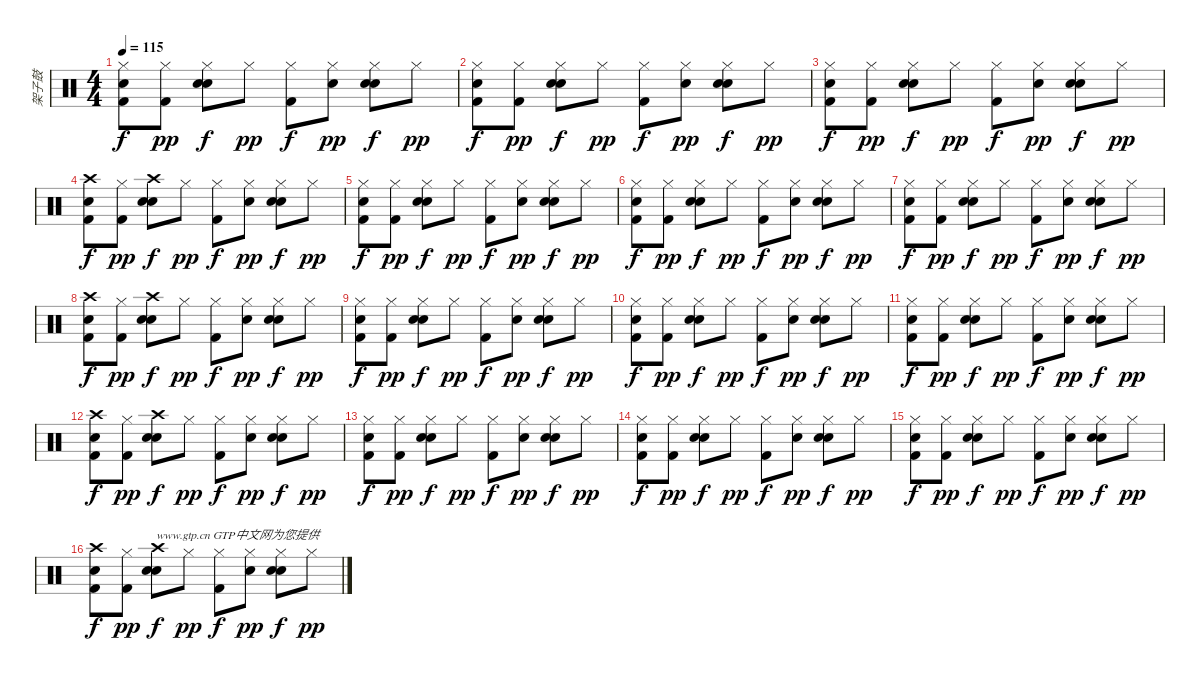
\track ("架子鼓" "架子鼓") {instrument percussion}
\staff {score}
\articulation defaults
\ts (4 4)
\tempo 115
\clef neutral
\ks c
("Hi-Hat (closed)" "Electric Snare (hit)" "Kick (hit) 2").8{dy f} ("Hi-Hat (closed)" "Kick (hit) 2").8{dy pp} ("Hi-Hat (closed)" "Snare (hit) 2" "Electric Snare (hit)").8{dy f} "Hi-Hat (closed)".8{dy pp} ("Hi-Hat (closed)" "Kick (hit) 2").8{dy f} ("Hi-Hat (closed)" "Snare (hit) 2").8{dy pp} ("Hi-Hat (closed)" "Snare (hit) 2" "Electric Snare (hit)").8{dy f} "Hi-Hat (closed)".8{dy pp} |
("Hi-Hat (closed)" "Electric Snare (hit)" "Kick (hit) 2").8{dy f} ("Hi-Hat (closed)" "Kick (hit) 2").8{dy pp} ("Hi-Hat (closed)" "Snare (hit) 2" "Electric Snare (hit)").8{dy f} "Hi-Hat (closed)".8{dy pp} ("Hi-Hat (closed)" "Kick (hit) 2").8{dy f} ("Hi-Hat (closed)" "Snare (hit) 2").8{dy pp} ("Hi-Hat (closed)" "Snare (hit) 2" "Electric Snare (hit)").8{dy f} "Hi-Hat (closed)".8{dy pp} |
("Hi-Hat (closed)" "Electric Snare (hit)" "Kick (hit) 2").8{dy f} ("Hi-Hat (closed)" "Kick (hit) 2").8{dy pp} ("Hi-Hat (closed)" "Snare (hit) 2" "Electric Snare (hit)").8{dy f} "Hi-Hat (closed)".8{dy pp} ("Hi-Hat (closed)" "Kick (hit) 2").8{dy f} ("Hi-Hat (closed)" "Snare (hit) 2").8{dy pp} ("Hi-Hat (closed)" "Snare (hit) 2" "Electric Snare (hit)").8{dy f} "Hi-Hat (closed)".8{dy pp} |
("Crash high (hit)" "Electric Snare (hit)" "Kick (hit) 2").8{dy f} ("Hi-Hat (closed)" "Kick (hit) 2").8{dy pp} ("Crash high (hit)" "Snare (hit) 2" "Electric Snare (hit)").8{dy f} "Hi-Hat (closed)".8{dy pp} ("Hi-Hat (closed)" "Kick (hit) 2").8{dy f} ("Hi-Hat (closed)" "Snare (hit) 2").8{dy pp} ("Hi-Hat (closed)" "Snare (hit) 2" "Electric Snare (hit)").8{dy f} "Hi-Hat (closed)".8{dy pp} |
("Hi-Hat (closed)" "Electric Snare (hit)" "Kick (hit) 2").8{dy f} ("Hi-Hat (closed)" "Kick (hit) 2").8{dy pp} ("Hi-Hat (closed)" "Snare (hit) 2" "Electric Snare (hit)").8{dy f} "Hi-Hat (closed)".8{dy pp} ("Hi-Hat (closed)" "Kick (hit) 2").8{dy f} ("Hi-Hat (closed)" "Snare (hit) 2").8{dy pp} ("Hi-Hat (closed)" "Snare (hit) 2" "Electric Snare (hit)").8{dy f} "Hi-Hat (closed)".8{dy pp} |
("Hi-Hat (closed)" "Electric Snare (hit)" "Kick (hit) 2").8{dy f} ("Hi-Hat (closed)" "Kick (hit) 2").8{dy pp} ("Hi-Hat (closed)" "Snare (hit) 2" "Electric Snare (hit)").8{dy f} "Hi-Hat (closed)".8{dy pp} ("Hi-Hat (closed)" "Kick (hit) 2").8{dy f} ("Hi-Hat (closed)" "Snare (hit) 2").8{dy pp} ("Hi-Hat (closed)" "Snare (hit) 2" "Electric Snare (hit)").8{dy f} "Hi-Hat (closed)".8{dy pp} |
("Hi-Hat (closed)" "Electric Snare (hit)" "Kick (hit) 2").8{dy f} ("Hi-Hat (closed)" "Kick (hit) 2").8{dy pp} ("Hi-Hat (closed)" "Snare (hit) 2" "Electric Snare (hit)").8{dy f} "Hi-Hat (closed)".8{dy pp} ("Hi-Hat (closed)" "Kick (hit) 2").8{dy f} ("Hi-Hat (closed)" "Snare (hit) 2").8{dy pp} ("Hi-Hat (closed)" "Snare (hit) 2" "Electric Snare (hit)").8{dy f} "Hi-Hat (closed)".8{dy pp} |
("Crash high (hit)" "Electric Snare (hit)" "Kick (hit) 2").8{dy f} ("Hi-Hat (closed)" "Kick (hit) 2").8{dy pp} ("Crash high (hit)" "Snare (hit) 2" "Electric Snare (hit)").8{dy f} "Hi-Hat (closed)".8{dy pp} ("Hi-Hat (closed)" "Kick (hit) 2").8{dy f} ("Hi-Hat (closed)" "Snare (hit) 2").8{dy pp} ("Hi-Hat (closed)" "Snare (hit) 2" "Electric Snare (hit)").8{dy f} "Hi-Hat (closed)".8{dy pp} |
("Hi-Hat (closed)" "Electric Snare (hit)" "Kick (hit) 2").8{dy f} ("Hi-Hat (closed)" "Kick (hit) 2").8{dy pp} ("Hi-Hat (closed)" "Snare (hit) 2" "Electric Snare (hit)").8{dy f} "Hi-Hat (closed)".8{dy pp} ("Hi-Hat (closed)" "Kick (hit) 2").8{dy f} ("Hi-Hat (closed)" "Snare (hit) 2").8{dy pp} ("Hi-Hat (closed)" "Snare (hit) 2" "Electric Snare (hit)").8{dy f} "Hi-Hat (closed)".8{dy pp} |
("Hi-Hat (closed)" "Electric Snare (hit)" "Kick (hit) 2").8{dy f} ("Hi-Hat (closed)" "Kick (hit) 2").8{dy pp} ("Hi-Hat (closed)" "Snare (hit) 2" "Electric Snare (hit)").8{dy f} "Hi-Hat (closed)".8{dy pp} ("Hi-Hat (closed)" "Kick (hit) 2").8{dy f} ("Hi-Hat (closed)" "Snare (hit) 2").8{dy pp} ("Hi-Hat (closed)" "Snare (hit) 2" "Electric Snare (hit)").8{dy f} "Hi-Hat (closed)".8{dy pp} |
("Hi-Hat (closed)" "Electric Snare (hit)" "Kick (hit) 2").8{dy f} ("Hi-Hat (closed)" "Kick (hit) 2").8{dy pp} ("Hi-Hat (closed)" "Snare (hit) 2" "Electric Snare (hit)").8{dy f} "Hi-Hat (closed)".8{dy pp} ("Hi-Hat (closed)" "Kick (hit) 2").8{dy f} ("Hi-Hat (closed)" "Snare (hit) 2").8{dy pp} ("Hi-Hat (closed)" "Snare (hit) 2" "Electric Snare (hit)").8{dy f} "Hi-Hat (closed)".8{dy pp} |
("Crash high (hit)" "Electric Snare (hit)" "Kick (hit) 2").8{dy f} ("Hi-Hat (closed)" "Kick (hit) 2").8{dy pp} ("Crash high (hit)" "Snare (hit) 2" "Electric Snare (hit)").8{dy f} "Hi-Hat (closed)".8{dy pp} ("Hi-Hat (closed)" "Kick (hit) 2").8{dy f} ("Hi-Hat (closed)" "Snare (hit) 2").8{dy pp} ("Hi-Hat (closed)" "Snare (hit) 2" "Electric Snare (hit)").8{dy f} "Hi-Hat (closed)".8{dy pp} |
("Hi-Hat (closed)" "Electric Snare (hit)" "Kick (hit) 2").8{dy f} ("Hi-Hat (closed)" "Kick (hit) 2").8{dy pp} ("Hi-Hat (closed)" "Snare (hit) 2" "Electric Snare (hit)").8{dy f} "Hi-Hat (closed)".8{dy pp} ("Hi-Hat (closed)" "Kick (hit) 2").8{dy f} ("Hi-Hat (closed)" "Snare (hit) 2").8{dy pp} ("Hi-Hat (closed)" "Snare (hit) 2" "Electric Snare (hit)").8{dy f} "Hi-Hat (closed)".8{dy pp} |
("Hi-Hat (closed)" "Electric Snare (hit)" "Kick (hit) 2").8{dy f} ("Hi-Hat (closed)" "Kick (hit) 2").8{dy pp} ("Hi-Hat (closed)" "Snare (hit) 2" "Electric Snare (hit)").8{dy f} "Hi-Hat (closed)".8{dy pp} ("Hi-Hat (closed)" "Kick (hit) 2").8{dy f} ("Hi-Hat (closed)" "Snare (hit) 2").8{dy pp} ("Hi-Hat (closed)" "Snare (hit) 2" "Electric Snare (hit)").8{dy f} "Hi-Hat (closed)".8{dy pp} |
("Hi-Hat (closed)" "Electric Snare (hit)" "Kick (hit) 2").8{dy f} ("Hi-Hat (closed)" "Kick (hit) 2").8{dy pp} ("Hi-Hat (closed)" "Snare (hit) 2" "Electric Snare (hit)").8{dy f} "Hi-Hat (closed)".8{dy pp} ("Hi-Hat (closed)" "Kick (hit) 2").8{dy f} ("Hi-Hat (closed)" "Snare (hit) 2").8{dy pp} ("Hi-Hat (closed)" "Snare (hit) 2" "Electric Snare (hit)").8{dy f} "Hi-Hat (closed)".8{dy pp} |
("Crash high (hit)" "Electric Snare (hit)" "Kick (hit) 2").8{txt "                    www.gtp.cn GTP中文网为您提供" dy f} ("Hi-Hat (closed)" "Kick (hit) 2").8{dy pp} ("Crash high (hit)" "Snare (hit) 2" "Electric Snare (hit)").8{dy f} "Hi-Hat (closed)".8{dy pp} ("Hi-Hat (closed)" "Kick (hit) 2").8{dy f} ("Hi-Hat (closed)" "Snare (hit) 2").8{dy pp} ("Hi-Hat (closed)" "Snare (hit) 2" "Electric Snare (hit)").8{dy f} "Hi-Hat (closed)".8{dy pp}
